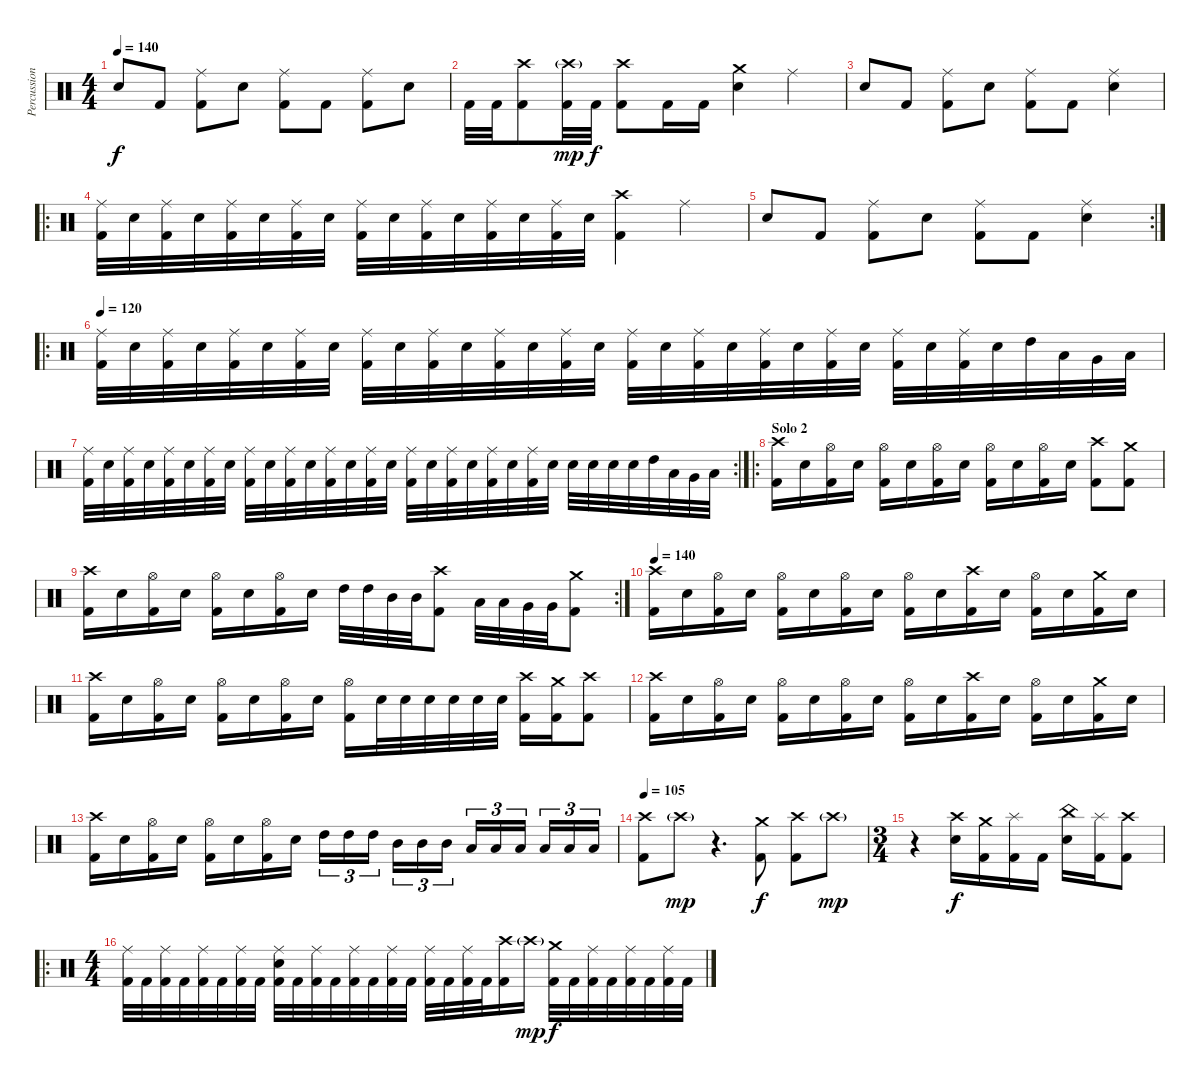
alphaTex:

\track ("Percussioni" "Percussion") {instrument percussion}
\staff {score}
\articulation defaults
\ts (4 4)
\tempo 140
\clef neutral
\ks c "Electric Snare (hit)".8{dy f} "Kick (hit) 2".8
("Ride (middle)" "Kick (hit) 2").8 "Electric Snare (hit)".8 ("Ride (middle)" "Kick (hit) 2").8 "Kick (hit) 2".8 ("Ride (middle)" "Kick (hit) 2").8 "Electric Snare (hit)".8 |
"Kick (hit) 2".32 "Kick (hit) 2".32 ("Crash high (hit)" "Kick (hit) 2").8 ("Crash high (hit)"{g} "Kick (hit) 2").32{dy mp} "Kick (hit) 2".32{dy f} ("Crash high (hit)" "Kick (hit) 2").8 "Kick (hit) 2".16 "Kick (hit) 2".16 ("Crash medium (hit)" "Electric Snare (hit)").4 "Ride (middle)".4 |
"Electric Snare (hit)".8 "Kick (hit) 2".8 ("Ride (middle)" "Kick (hit) 2").8 "Electric Snare (hit)".8 ("Ride (middle)" "Kick (hit) 2").8 "Kick (hit) 2".8 ("Ride (middle)" "Electric Snare (hit)").4 |
\ro
("Ride (middle)" "Kick (hit) 2").32 "Electric Snare (hit)".32 ("Ride (middle)" "Kick (hit) 2").32 "Electric Snare (hit)".32 ("Ride (middle)" "Kick (hit) 2").32 "Electric Snare (hit)".32 ("Ride (middle)" "Kick (hit) 2").32 "Electric Snare (hit)".32 ("Ride (middle)" "Kick (hit) 2").32 "Electric Snare (hit)".32 ("Ride (middle)" "Kick (hit) 2").32 "Electric Snare (hit)".32 ("Ride (middle)" "Kick (hit) 2").32 "Electric Snare (hit)".32 ("Ride (middle)" "Kick (hit) 2").32 "Electric Snare (hit)".32 ("Crash high (hit)" "Kick (hit) 2").4 "Ride (middle)".4 |
\rc 2 "Electric Snare (hit)".8 "Kick (hit) 2".8
("Ride (middle)" "Kick (hit) 2").8 "Electric Snare (hit)".8 ("Ride (middle)" "Kick (hit) 2").8 "Kick (hit) 2".8 ("Ride (middle)" "Electric Snare (hit)").4 |
\ro
\section ("" "")
\tempo 120
("Ride (middle)" "Kick (hit) 2").32 "Electric Snare (hit)".32 ("Ride (middle)" "Kick (hit) 2").32 "Electric Snare (hit)".32 ("Ride (middle)" "Kick (hit) 2").32 "Electric Snare (hit)".32 ("Ride (middle)" "Kick (hit) 2").32 "Electric Snare (hit)".32 ("Ride (middle)" "Kick (hit) 2").32 "Electric Snare (hit)".32 ("Ride (middle)" "Kick (hit) 2").32 "Electric Snare (hit)".32 ("Ride (middle)" "Kick (hit) 2").32 "Electric Snare (hit)".32 ("Ride (middle)" "Kick (hit) 2").32 "Electric Snare (hit)".32 ("Ride (middle)" "Kick (hit) 2").32 "Electric Snare (hit)".32 ("Ride (middle)" "Kick (hit) 2").32 "Electric Snare (hit)".32 ("Ride (middle)" "Kick (hit) 2").32 "Electric Snare (hit)".32 ("Ride (middle)" "Kick (hit) 2").32 "Electric Snare (hit)".32 ("Ride (middle)" "Kick (hit) 2").32 "Electric Snare (hit)".32 ("Ride (middle)" "Kick (hit) 2").32 "Electric Snare (hit)".32 "High Tom (hit)".32 "Low Tom (hit)".32 "Very Low Tom (hit)".32 "Low Floor Tom (hit)".32 |
\rc 2
("Ride (middle)" "Kick (hit) 2").32 "Electric Snare (hit)".32 ("Ride (middle)" "Kick (hit) 2").32 "Electric Snare (hit)".32 ("Ride (middle)" "Kick (hit) 2").32 "Electric Snare (hit)".32 ("Ride (middle)" "Kick (hit) 2").32 "Electric Snare (hit)".32 ("Ride (middle)" "Kick (hit) 2").32 "Electric Snare (hit)".32 ("Ride (middle)" "Kick (hit) 2").32 "Electric Snare (hit)".32 ("Ride (middle)" "Kick (hit) 2").32 "Electric Snare (hit)".32 ("Ride (middle)" "Kick (hit) 2").32 "Electric Snare (hit)".32 ("Ride (middle)" "Kick (hit) 2").32 "Electric Snare (hit)".32 ("Ride (middle)" "Kick (hit) 2").32 "Electric Snare (hit)".32 ("Ride (middle)" "Kick (hit) 2").32 "Electric Snare (hit)".32 ("Ride (middle)" "Kick (hit) 2").32 "Electric Snare (hit)".32 "Electric Snare (hit)".32 "Electric Snare (hit)".32 "Electric Snare (hit)".32 "Electric Snare (hit)".32 "High Tom (hit)".32 "Low Tom (hit)".32 "Very Low Tom (hit)".32 "Low Floor Tom (hit)".32 |
\ro
\section ("" "Solo 2")
("Crash high (hit)" "Kick (hit) 2").16 "Electric Snare (hit)".16 ("Hi-Hat (open)" "Kick (hit) 2").16 "Electric Snare (hit)".16 ("Hi-Hat (open)" "Kick (hit) 2").16 "Electric Snare (hit)".16 ("Hi-Hat (open)" "Kick (hit) 2").16 "Electric Snare (hit)".16 ("Hi-Hat (open)" "Kick (hit) 2").16 "Electric Snare (hit)".16 ("Hi-Hat (open)" "Kick (hit) 2").16 "Electric Snare (hit)".16 ("Crash high (hit)" "Kick (hit) 2").8 ("Crash medium (hit)" "Kick (hit) 2").8 |
\rc 2
("Crash high (hit)" "Kick (hit) 2").16 "Electric Snare (hit)".16 ("Hi-Hat (open)" "Kick (hit) 2").16 "Electric Snare (hit)".16 ("Hi-Hat (open)" "Kick (hit) 2").16 "Electric Snare (hit)".16 ("Hi-Hat (open)" "Kick (hit) 2").16 "Electric Snare (hit)".16 "High Tom (hit)".32 "High Tom (hit)".32 "Mid Tom (hit)".32 "Mid Tom (hit)".32 ("Crash high (hit)" "Kick (hit) 2").8 "Low Tom (hit)".32 "Low Tom (hit)".32 "Very Low Tom (hit)".32 "Very Low Tom (hit)".32 ("Crash medium (hit)" "Kick (hit) 2").8 |
\tempo 140
("Crash high (hit)" "Kick (hit) 2").16 "Electric Snare (hit)".16 ("Hi-Hat (open)" "Kick (hit) 2").16 "Electric Snare (hit)".16 ("Hi-Hat (open)" "Kick (hit) 2").16 "Electric Snare (hit)".16 ("Hi-Hat (open)" "Kick (hit) 2").16 "Electric Snare (hit)".16 ("Hi-Hat (open)" "Kick (hit) 2").16 "Electric Snare (hit)".16 ("Crash high (hit)" "Kick (hit) 2").16 "Electric Snare (hit)".16 ("Hi-Hat (open)" "Kick (hit) 2").16 "Electric Snare (hit)".16 ("Crash medium (hit)" "Kick (hit) 2").16 "Electric Snare (hit)".16 |
("Crash high (hit)" "Kick (hit) 2").16 "Electric Snare (hit)".16 ("Hi-Hat (open)" "Kick (hit) 2").16 "Electric Snare (hit)".16 ("Hi-Hat (open)" "Kick (hit) 2").16 "Electric Snare (hit)".16 ("Hi-Hat (open)" "Kick (hit) 2").16 "Electric Snare (hit)".16 ("Hi-Hat (open)" "Kick (hit) 2").16 "Electric Snare (hit)".32 "Electric Snare (hit)".32 "Electric Snare (hit)".32 "Electric Snare (hit)".32 "Electric Snare (hit)".32 "Electric Snare (hit)".32 ("Crash high (hit)" "Kick (hit) 2").16 ("Crash medium (hit)" "Kick (hit) 2").16 ("Crash high (hit)" "Kick (hit) 2").8 |
("Crash high (hit)" "Kick (hit) 2").16 "Electric Snare (hit)".16 ("Hi-Hat (open)" "Kick (hit) 2").16 "Electric Snare (hit)".16 ("Hi-Hat (open)" "Kick (hit) 2").16 "Electric Snare (hit)".16 ("Hi-Hat (open)" "Kick (hit) 2").16 "Electric Snare (hit)".16 ("Hi-Hat (open)" "Kick (hit) 2").16 "Electric Snare (hit)".16 ("Crash high (hit)" "Kick (hit) 2").16 "Electric Snare (hit)".16 ("Hi-Hat (open)" "Kick (hit) 2").16 "Electric Snare (hit)".16 ("Crash medium (hit)" "Kick (hit) 2").16 "Electric Snare (hit)".16 |
("Crash high (hit)" "Kick (hit) 2").16 "Electric Snare (hit)".16 ("Hi-Hat (open)" "Kick (hit) 2").16 "Electric Snare (hit)".16 ("Hi-Hat (open)" "Kick (hit) 2").16 "Electric Snare (hit)".16 ("Hi-Hat (open)" "Kick (hit) 2").16 "Electric Snare (hit)".16 "High Tom (hit)".16{tu (3 2)} "High Tom (hit)".16{tu (3 2)} "High Tom (hit)".16{tu (3 2)} "Mid Tom (hit)".16{tu (3 2)} "Mid Tom (hit)".16{tu (3 2)} "Mid Tom (hit)".16{tu (3 2)} "Low Tom (hit)".16{tu (3 2)} "Low Tom (hit)".16{tu (3 2)} "Low Tom (hit)".16{tu (3 2)} "Low Floor Tom (hit)".16{tu (3 2)} "Low Floor Tom (hit)".16{tu (3 2)} "Low Floor Tom (hit)".16{tu (3 2)} |
\tempo 105
("Crash high (hit)" "Kick (hit) 2").8 "Crash high (hit)"{g}.8{dy mp volume 0} r.4{d} ("Crash medium (hit)" "Kick (hit) 2").8{dy f volume 14} ("Crash high (hit)" "Kick (hit) 2").8 "Crash high (hit)"{g}.8{dy mp volume 0} |
\ts (3 4)
r.4 ("Crash high (hit)" "Electric Snare (hit)").16{dy f volume 14} ("Crash medium (hit)" "Kick (hit) 2").16 ("Splash (hit)" "Kick (hit) 2").16 "Kick (hit) 2".16 ("China (hit)" "Electric Snare (hit)").16 ("Splash (hit)" "Kick (hit) 2").16 ("Crash high (hit)" "Kick (hit) 2").8 |
\ro
\ts (4 4)
("Ride (middle)" "Kick (hit) 2").32 "Kick (hit) 2".32 ("Ride (middle)" "Kick (hit) 2").32 "Kick (hit) 2".32 ("Ride (middle)" "Kick (hit) 2").32 "Kick (hit) 2".32 ("Ride (middle)" "Kick (hit) 2").32 "Kick (hit) 2".32 ("Ride (middle)" "Electric Snare (hit)" "Kick (hit) 2").32 "Kick (hit) 2".32 ("Ride (middle)" "Kick (hit) 2").32 "Kick (hit) 2".32 ("Ride (middle)" "Kick (hit) 2").32 "Kick (hit) 2".32 ("Ride (middle)" "Kick (hit) 2").32 "Kick (hit) 2".32 ("Ride (middle)" "Kick (hit) 2").32 "Kick (hit) 2".32 ("Ride (middle)" "Kick (hit) 2").32 "Kick (hit) 2".32 ("Crash high (hit)" "Kick (hit) 2").16 "Crash high (hit)"{g}.16{dy mp volume 0} ("Crash medium (hit)" "Kick (hit) 2").32{dy f volume 14} "Kick (hit) 2".32 ("Ride (middle)" "Kick (hit) 2").32 "Kick (hit) 2".32 ("Ride (middle)" "Kick (hit) 2").32 "Kick (hit) 2".32 ("Ride (middle)" "Kick (hit) 2").32 "Kick (hit) 2".32
